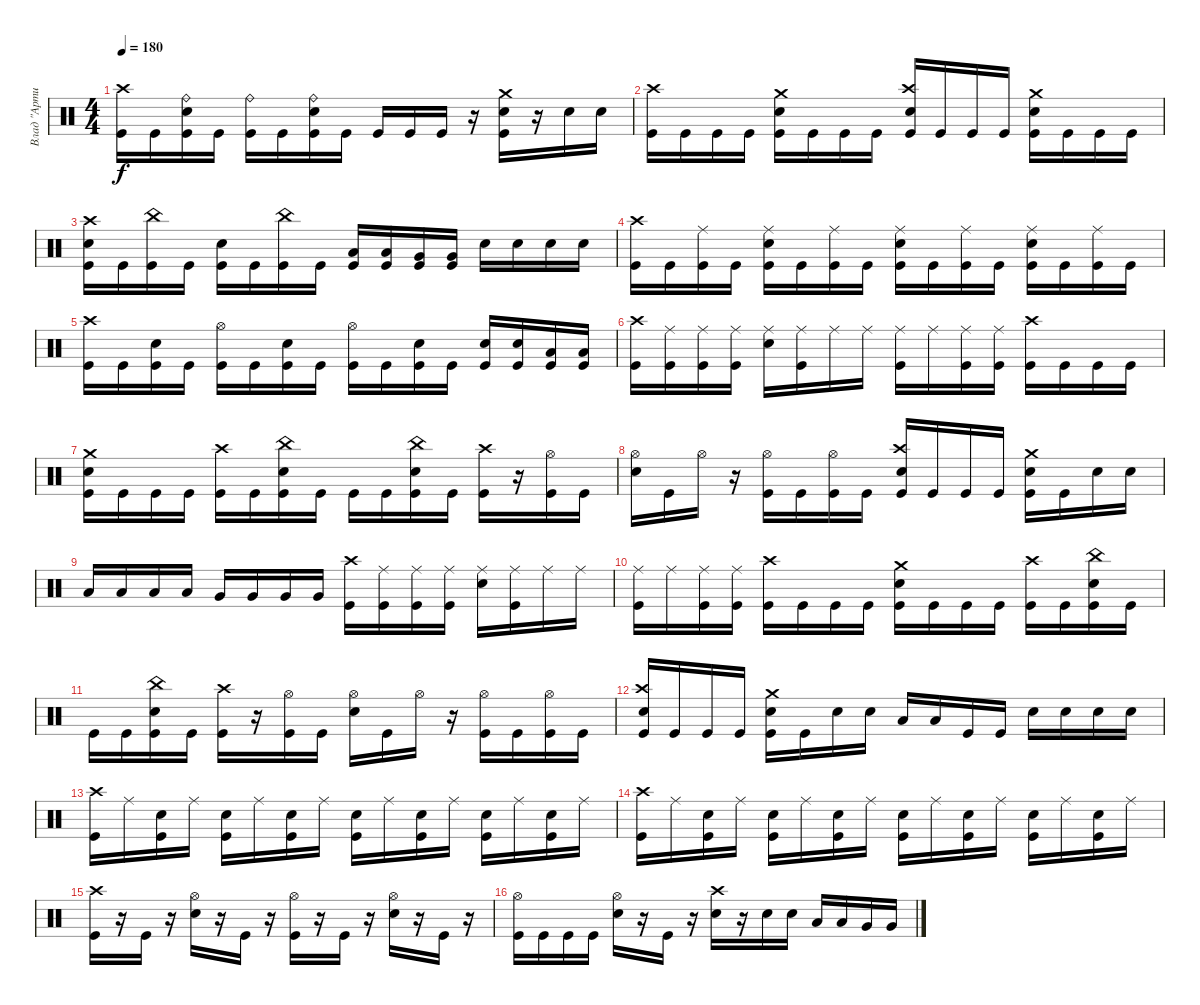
\track ("Влад \"Артист\"" "Влад \"Арти") {instrument percussion}
\staff {score}
\articulation defaults
\ts (4 4)
\tempo 180
\clef neutral
\ks c
("Kick (hit)" "Crash high (hit)").16{dy f} "Kick (hit)".16 ("Ride (bell)" "Kick (hit)" "Snare (hit) 2").16 "Kick (hit)".16 ("Ride (bell)" "Kick (hit)").16 "Kick (hit)".16 ("Snare (hit) 2" "Ride (bell)" "Kick (hit)").16 "Kick (hit)".16 "Kick (hit)".16 "Kick (hit)".16 "Kick (hit)".16 r.16 ("Kick (hit)" "Crash medium (hit)" "Snare (hit) 2").16 r.16 "Snare (hit) 2".16 "Snare (hit) 2".16 |
("Kick (hit)" "Crash high (hit)").16 "Kick (hit)".16 "Kick (hit)".16 "Kick (hit)".16 ("Snare (hit) 2" "Crash medium (hit)" "Kick (hit)").16 "Kick (hit)".16 "Kick (hit)".16 "Kick (hit)".16 ("Snare (hit) 2" "Crash high (hit)" "Kick (hit)").16 "Kick (hit)".16 "Kick (hit)".16 "Kick (hit)".16 ("Snare (hit) 2" "Crash medium (hit)" "Kick (hit)").16 "Kick (hit)".16 "Kick (hit)".16 "Kick (hit)".16 |
("Snare (hit) 2" "Kick (hit)" "Crash high (hit)").16 "Kick (hit)".16 ("China (hit)" "Kick (hit)").16 "Kick (hit)".16 ("Kick (hit)" "Snare (hit) 2").16 "Kick (hit)".16 ("Kick (hit)" "China (hit)").16 "Kick (hit)".16 ("Low Tom (hit)" "Kick (hit)").16 ("Low Tom (hit)" "Kick (hit)").16 ("Very Low Tom (hit)" "Kick (hit)").16 ("Very Low Tom (hit)" "Kick (hit)").16 "Snare (hit) 2".16 "Snare (hit) 2".16 "Snare (hit) 2".16 "Snare (hit) 2".16 |
("Crash high (hit)" "Kick (hit)").16 "Kick (hit)".16 ("Kick (hit)" "Ride (middle)").16 "Kick (hit)".16 ("Snare (hit) 2" "Kick (hit)" "Ride (middle)").16 "Kick (hit)".16 ("Kick (hit)" "Ride (middle)").16 "Kick (hit)".16 ("Snare (hit) 2" "Ride (middle)" "Kick (hit)").16 "Kick (hit)".16 ("Ride (middle)" "Kick (hit)").16 "Kick (hit)".16 ("Snare (hit) 2" "Ride (middle)" "Kick (hit)").16 "Kick (hit)".16 ("Kick (hit)" "Ride (middle)").16 "Kick (hit)".16 |
("Crash high (hit)" "Kick (hit)").16 "Kick (hit)".16 ("Kick (hit)" "Snare (hit) 2").16 "Kick (hit)".16 ("Kick (hit)" "Hi-Hat (open)").16 "Kick (hit)".16 ("Kick (hit)" "Snare (hit) 2").16 "Kick (hit)".16 ("Hi-Hat (open)" "Kick (hit)").16 "Kick (hit)".16 ("Kick (hit)" "Snare (hit) 2").16 "Kick (hit)".16 ("Snare (hit) 2" "Kick (hit)").16 ("Snare (hit) 2" "Kick (hit)").16 ("Kick (hit)" "Low Tom (hit)").16 ("Kick (hit)" "Low Tom (hit)").16 |
("Kick (hit)" "Crash high (hit)").16 ("Kick (hit)" "Ride (middle)").16 ("Kick (hit)" "Ride (middle)").16 ("Kick (hit)" "Ride (middle)").16 ("Ride (middle)" "Snare (hit) 2").16 ("Ride (middle)" "Kick (hit)").16 "Ride (middle)".16 "Ride (middle)".16 ("Kick (hit)" "Ride (middle)").16 "Ride (middle)".16 ("Kick (hit)" "Ride (middle)").16 ("Ride (middle)" "Kick (hit)").16 ("Crash high (hit)" "Kick (hit)").16 "Kick (hit)".16 "Kick (hit)".16 "Kick (hit)".16 |
("Snare (hit) 2" "Crash medium (hit)" "Kick (hit)").16 "Kick (hit)".16 "Kick (hit)".16 "Kick (hit)".16 ("Crash high (hit)" "Kick (hit)").16 "Kick (hit)".16 ("Kick (hit)" "China (hit)" "Snare (hit) 2").16 "Kick (hit)".16 "Kick (hit)".16 "Kick (hit)".16 ("Snare (hit) 2" "Kick (hit)" "China (hit)").16 "Kick (hit)".16 ("Crash high (hit)" "Kick (hit)").16 r.16 ("Kick (hit)" "Hi-Hat (open)").16 "Kick (hit)".16 |
("Hi-Hat (open)" "Snare (hit) 2").16 "Kick (hit)".16 "Hi-Hat (open)".16 r.16 ("Hi-Hat (open)" "Kick (hit)").16 "Kick (hit)".16 ("Hi-Hat (open)" "Kick (hit)").16 "Kick (hit)".16 ("Kick (hit)" "Crash high (hit)" "Snare (hit) 2").16 "Kick (hit)".16 "Kick (hit)".16 "Kick (hit)".16 ("Snare (hit) 2" "Kick (hit)" "Crash medium (hit)").16 "Kick (hit)".16 "Snare (hit) 2".16 "Snare (hit) 2".16 |
"Low Tom (hit)".16 "Low Tom (hit)".16 "Low Tom (hit)".16 "Low Tom (hit)".16 "Very Low Tom (hit)".16 "Very Low Tom (hit)".16 "Very Low Tom (hit)".16 "Very Low Tom (hit)".16 ("Kick (hit)" "Crash high (hit)").16 ("Kick (hit)" "Ride (middle)").16 ("Kick (hit)" "Ride (middle)").16 ("Kick (hit)" "Ride (middle)").16 ("Ride (middle)" "Snare (hit) 2").16 ("Ride (middle)" "Kick (hit)").16 "Ride (middle)".16 "Ride (middle)".16 |
("Kick (hit)" "Ride (middle)").16 "Ride (middle)".16 ("Kick (hit)" "Ride (middle)").16 ("Ride (middle)" "Kick (hit)").16 ("Crash high (hit)" "Kick (hit)").16 "Kick (hit)".16 "Kick (hit)".16 "Kick (hit)".16 ("Snare (hit) 2" "Crash medium (hit)" "Kick (hit)").16 "Kick (hit)".16 "Kick (hit)".16 "Kick (hit)".16 ("Crash high (hit)" "Kick (hit)").16 "Kick (hit)".16 ("Kick (hit)" "China (hit)" "Snare (hit) 2").16 "Kick (hit)".16 |
"Kick (hit)".16 "Kick (hit)".16 ("Snare (hit) 2" "Kick (hit)" "China (hit)").16 "Kick (hit)".16 ("Crash high (hit)" "Kick (hit)").16 r.16 ("Kick (hit)" "Hi-Hat (open)").16 "Kick (hit)".16 ("Hi-Hat (open)" "Snare (hit) 2").16 "Kick (hit)".16 "Hi-Hat (open)".16 r.16 ("Hi-Hat (open)" "Kick (hit)").16 "Kick (hit)".16 ("Hi-Hat (open)" "Kick (hit)").16 "Kick (hit)".16 |
("Kick (hit)" "Crash high (hit)" "Snare (hit) 2").16 "Kick (hit)".16 "Kick (hit)".16 "Kick (hit)".16 ("Snare (hit) 2" "Kick (hit)" "Crash medium (hit)").16 "Kick (hit)".16 "Snare (hit) 2".16 "Snare (hit) 2".16 "Low Tom (hit)".16 "Low Tom (hit)".16 "Kick (hit)".16 "Kick (hit)".16 "Snare (hit) 2".16 "Snare (hit) 2".16 "Snare (hit) 2".16 "Snare (hit) 2".16 |
("Crash high (hit)" "Kick (hit)").16 "Ride (middle)".16 ("Snare (hit) 2" "Kick (hit)").16 "Ride (middle)".16 ("Snare (hit) 2" "Kick (hit)").16 "Ride (middle)".16 ("Snare (hit) 2" "Kick (hit)").16 "Ride (middle)".16 ("Snare (hit) 2" "Kick (hit)").16 "Ride (middle)".16 ("Snare (hit) 2" "Kick (hit)").16 "Ride (middle)".16 ("Snare (hit) 2" "Kick (hit)").16 "Ride (middle)".16 ("Snare (hit) 2" "Kick (hit)").16 "Ride (middle)".16 |
("Crash high (hit)" "Kick (hit)").16 "Ride (middle)".16 ("Snare (hit) 2" "Kick (hit)").16 "Ride (middle)".16 ("Snare (hit) 2" "Kick (hit)").16 "Ride (middle)".16 ("Snare (hit) 2" "Kick (hit)").16 "Ride (middle)".16 ("Snare (hit) 2" "Kick (hit)").16 "Ride (middle)".16 ("Snare (hit) 2" "Kick (hit)").16 "Ride (middle)".16 ("Snare (hit) 2" "Kick (hit)").16 "Ride (middle)".16 ("Snare (hit) 2" "Kick (hit)").16 "Ride (middle)".16 |
("Crash high (hit)" "Kick (hit)").16 r.16 "Kick (hit)".16 r.16 ("Hi-Hat (open)" "Snare (hit) 2").16 r.16 "Kick (hit)".16 r.16 ("Hi-Hat (open)" "Kick (hit)").16 r.16 "Kick (hit)".16 r.16 ("Hi-Hat (open)" "Snare (hit) 2").16 r.16 "Kick (hit)".16 r.16 |
("Hi-Hat (open)" "Kick (hit)").16 "Kick (hit)".16 "Kick (hit)".16 "Kick (hit)".16 ("Hi-Hat (open)" "Snare (hit) 2").16 r.16 "Kick (hit)".16 r.16 ("Crash high (hit)" "Snare (hit) 2").16 r.16 "Snare (hit) 2".16 "Snare (hit) 2".16 "Low Tom (hit)".16 "Low Tom (hit)".16 "Very Low Tom (hit)".16 "Very Low Tom (hit)".16
